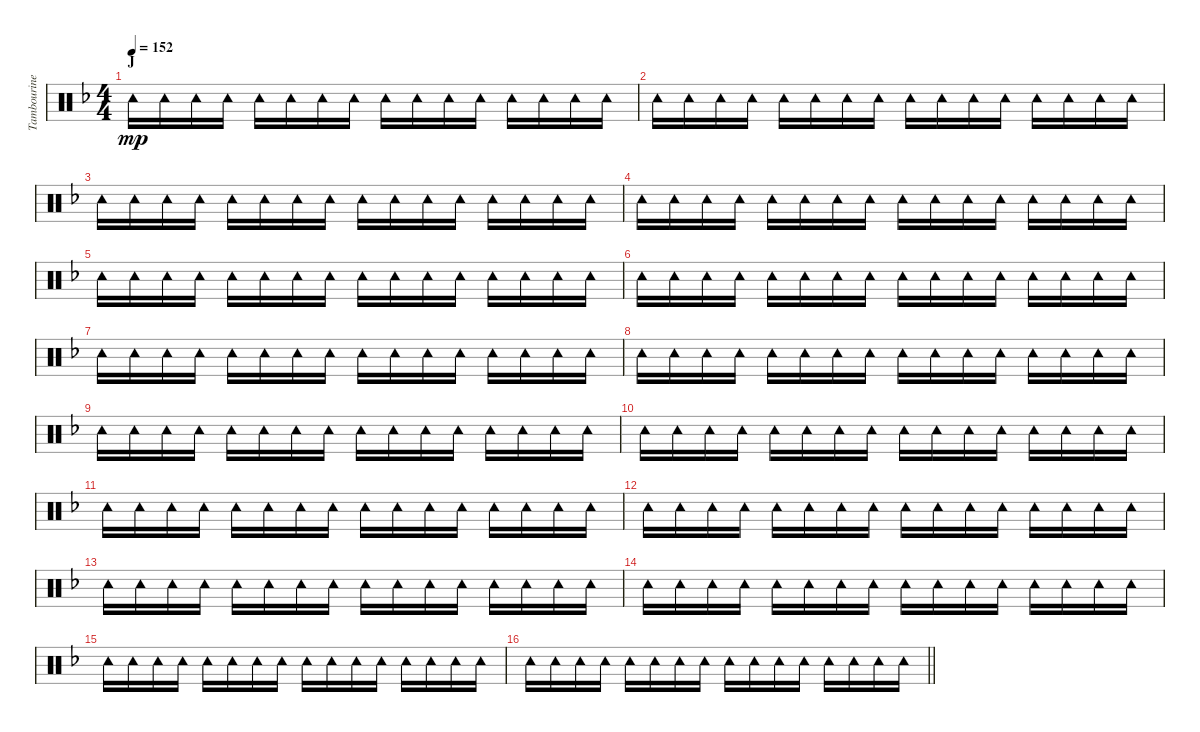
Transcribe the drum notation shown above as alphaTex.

\track ("Tambourine" "Tambourine") {instrument percussion}
\staff {score}
\articulation defaults
\ts (4 4)
\section ("" "J")
\tempo 152
\clef neutral
\ks f "Tambourine (hit)".16{dy mp} "Tambourine (hit)".16 "Tambourine (hit)".16 "Tambourine (hit)".16 "Tambourine (hit)".16 "Tambourine (hit)".16 "Tambourine (hit)".16 "Tambourine (hit)".16 "Tambourine (hit)".16 "Tambourine (hit)".16 "Tambourine (hit)".16 "Tambourine (hit)".16 "Tambourine (hit)".16 "Tambourine (hit)".16 "Tambourine (hit)".16 "Tambourine (hit)".16
|
"Tambourine (hit)".16 "Tambourine (hit)".16 "Tambourine (hit)".16 "Tambourine (hit)".16 "Tambourine (hit)".16 "Tambourine (hit)".16 "Tambourine (hit)".16 "Tambourine (hit)".16 "Tambourine (hit)".16 "Tambourine (hit)".16 "Tambourine (hit)".16 "Tambourine (hit)".16 "Tambourine (hit)".16 "Tambourine (hit)".16 "Tambourine (hit)".16 "Tambourine (hit)".16 |
"Tambourine (hit)".16 "Tambourine (hit)".16 "Tambourine (hit)".16 "Tambourine (hit)".16 "Tambourine (hit)".16 "Tambourine (hit)".16 "Tambourine (hit)".16 "Tambourine (hit)".16 "Tambourine (hit)".16 "Tambourine (hit)".16 "Tambourine (hit)".16 "Tambourine (hit)".16 "Tambourine (hit)".16 "Tambourine (hit)".16 "Tambourine (hit)".16 "Tambourine (hit)".16 |
"Tambourine (hit)".16 "Tambourine (hit)".16 "Tambourine (hit)".16 "Tambourine (hit)".16 "Tambourine (hit)".16 "Tambourine (hit)".16 "Tambourine (hit)".16 "Tambourine (hit)".16 "Tambourine (hit)".16 "Tambourine (hit)".16 "Tambourine (hit)".16 "Tambourine (hit)".16 "Tambourine (hit)".16 "Tambourine (hit)".16 "Tambourine (hit)".16 "Tambourine (hit)".16 |
"Tambourine (hit)".16 "Tambourine (hit)".16 "Tambourine (hit)".16 "Tambourine (hit)".16 "Tambourine (hit)".16 "Tambourine (hit)".16 "Tambourine (hit)".16 "Tambourine (hit)".16 "Tambourine (hit)".16 "Tambourine (hit)".16 "Tambourine (hit)".16 "Tambourine (hit)".16 "Tambourine (hit)".16 "Tambourine (hit)".16 "Tambourine (hit)".16 "Tambourine (hit)".16 |
"Tambourine (hit)".16 "Tambourine (hit)".16 "Tambourine (hit)".16 "Tambourine (hit)".16 "Tambourine (hit)".16 "Tambourine (hit)".16 "Tambourine (hit)".16 "Tambourine (hit)".16 "Tambourine (hit)".16 "Tambourine (hit)".16 "Tambourine (hit)".16 "Tambourine (hit)".16 "Tambourine (hit)".16 "Tambourine (hit)".16 "Tambourine (hit)".16 "Tambourine (hit)".16 |
"Tambourine (hit)".16 "Tambourine (hit)".16 "Tambourine (hit)".16 "Tambourine (hit)".16 "Tambourine (hit)".16 "Tambourine (hit)".16 "Tambourine (hit)".16 "Tambourine (hit)".16 "Tambourine (hit)".16 "Tambourine (hit)".16 "Tambourine (hit)".16 "Tambourine (hit)".16 "Tambourine (hit)".16 "Tambourine (hit)".16 "Tambourine (hit)".16 "Tambourine (hit)".16 |
"Tambourine (hit)".16 "Tambourine (hit)".16 "Tambourine (hit)".16 "Tambourine (hit)".16 "Tambourine (hit)".16 "Tambourine (hit)".16 "Tambourine (hit)".16 "Tambourine (hit)".16 "Tambourine (hit)".16 "Tambourine (hit)".16 "Tambourine (hit)".16 "Tambourine (hit)".16 "Tambourine (hit)".16 "Tambourine (hit)".16 "Tambourine (hit)".16 "Tambourine (hit)".16 |
"Tambourine (hit)".16 "Tambourine (hit)".16 "Tambourine (hit)".16 "Tambourine (hit)".16 "Tambourine (hit)".16 "Tambourine (hit)".16 "Tambourine (hit)".16 "Tambourine (hit)".16 "Tambourine (hit)".16 "Tambourine (hit)".16 "Tambourine (hit)".16 "Tambourine (hit)".16 "Tambourine (hit)".16 "Tambourine (hit)".16 "Tambourine (hit)".16 "Tambourine (hit)".16 |
"Tambourine (hit)".16 "Tambourine (hit)".16 "Tambourine (hit)".16 "Tambourine (hit)".16 "Tambourine (hit)".16 "Tambourine (hit)".16 "Tambourine (hit)".16 "Tambourine (hit)".16 "Tambourine (hit)".16 "Tambourine (hit)".16 "Tambourine (hit)".16 "Tambourine (hit)".16 "Tambourine (hit)".16 "Tambourine (hit)".16 "Tambourine (hit)".16 "Tambourine (hit)".16 |
"Tambourine (hit)".16 "Tambourine (hit)".16 "Tambourine (hit)".16 "Tambourine (hit)".16 "Tambourine (hit)".16 "Tambourine (hit)".16 "Tambourine (hit)".16 "Tambourine (hit)".16 "Tambourine (hit)".16 "Tambourine (hit)".16 "Tambourine (hit)".16 "Tambourine (hit)".16 "Tambourine (hit)".16 "Tambourine (hit)".16 "Tambourine (hit)".16 "Tambourine (hit)".16 |
"Tambourine (hit)".16 "Tambourine (hit)".16 "Tambourine (hit)".16 "Tambourine (hit)".16 "Tambourine (hit)".16 "Tambourine (hit)".16 "Tambourine (hit)".16 "Tambourine (hit)".16 "Tambourine (hit)".16 "Tambourine (hit)".16 "Tambourine (hit)".16 "Tambourine (hit)".16 "Tambourine (hit)".16 "Tambourine (hit)".16 "Tambourine (hit)".16 "Tambourine (hit)".16 |
"Tambourine (hit)".16 "Tambourine (hit)".16 "Tambourine (hit)".16 "Tambourine (hit)".16 "Tambourine (hit)".16 "Tambourine (hit)".16 "Tambourine (hit)".16 "Tambourine (hit)".16 "Tambourine (hit)".16 "Tambourine (hit)".16 "Tambourine (hit)".16 "Tambourine (hit)".16 "Tambourine (hit)".16 "Tambourine (hit)".16 "Tambourine (hit)".16 "Tambourine (hit)".16 |
"Tambourine (hit)".16 "Tambourine (hit)".16 "Tambourine (hit)".16 "Tambourine (hit)".16 "Tambourine (hit)".16 "Tambourine (hit)".16 "Tambourine (hit)".16 "Tambourine (hit)".16 "Tambourine (hit)".16 "Tambourine (hit)".16 "Tambourine (hit)".16 "Tambourine (hit)".16 "Tambourine (hit)".16 "Tambourine (hit)".16 "Tambourine (hit)".16 "Tambourine (hit)".16 |
"Tambourine (hit)".16 "Tambourine (hit)".16 "Tambourine (hit)".16 "Tambourine (hit)".16 "Tambourine (hit)".16 "Tambourine (hit)".16 "Tambourine (hit)".16 "Tambourine (hit)".16 "Tambourine (hit)".16 "Tambourine (hit)".16 "Tambourine (hit)".16 "Tambourine (hit)".16 "Tambourine (hit)".16 "Tambourine (hit)".16 "Tambourine (hit)".16 "Tambourine (hit)".16 |
\barLineRight lightlight "Tambourine (hit)".16 "Tambourine (hit)".16 "Tambourine (hit)".16 "Tambourine (hit)".16 "Tambourine (hit)".16 "Tambourine (hit)".16 "Tambourine (hit)".16 "Tambourine (hit)".16 "Tambourine (hit)".16 "Tambourine (hit)".16 "Tambourine (hit)".16 "Tambourine (hit)".16 "Tambourine (hit)".16 "Tambourine (hit)".16 "Tambourine (hit)".16 "Tambourine (hit)".16
